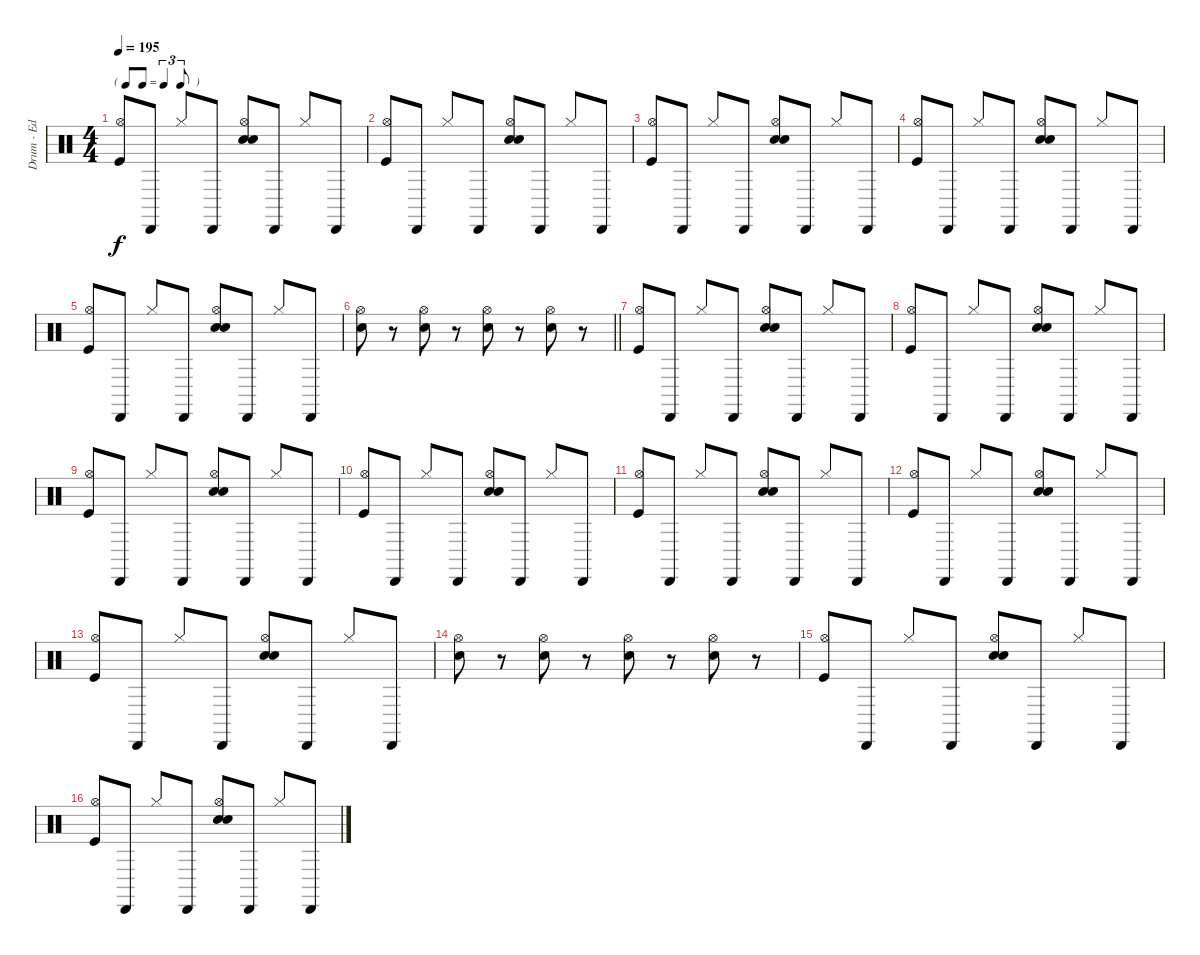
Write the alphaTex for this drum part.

\track ("Drum - Ed" "Drum - Ed") {instrument percussion}
\staff {score}
\articulation defaults
\ts (4 4)
\tf triplet8th
\tempo 195
\clef neutral
\ks c
("Hi-Hat (open)" "Kick (hit)").8{dy f} "Cabasa (hit)".8 "Hi-Hat (closed)".8 "Cabasa (hit)".8 ("Hi-Hat (open)" "Hand Clap (hit)" "Electric Snare (hit)").8 "Cabasa (hit)".8 "Hi-Hat (closed)".8 "Cabasa (hit)".8 |
("Hi-Hat (open)" "Kick (hit)").8 "Cabasa (hit)".8 "Hi-Hat (closed)".8 "Cabasa (hit)".8 ("Hi-Hat (open)" "Hand Clap (hit)" "Electric Snare (hit)").8 "Cabasa (hit)".8 "Hi-Hat (closed)".8 "Cabasa (hit)".8 |
("Hi-Hat (open)" "Kick (hit)").8 "Cabasa (hit)".8 "Hi-Hat (closed)".8 "Cabasa (hit)".8 ("Hi-Hat (open)" "Hand Clap (hit)" "Electric Snare (hit)").8 "Cabasa (hit)".8 "Hi-Hat (closed)".8 "Cabasa (hit)".8 |
("Hi-Hat (open)" "Kick (hit)").8 "Cabasa (hit)".8 "Hi-Hat (closed)".8 "Cabasa (hit)".8 ("Hi-Hat (open)" "Hand Clap (hit)" "Electric Snare (hit)").8 "Cabasa (hit)".8 "Hi-Hat (closed)".8 "Cabasa (hit)".8 |
("Hi-Hat (open)" "Kick (hit)").8 "Cabasa (hit)".8 "Hi-Hat (closed)".8 "Cabasa (hit)".8 ("Hi-Hat (open)" "Hand Clap (hit)" "Electric Snare (hit)").8 "Cabasa (hit)".8 "Hi-Hat (closed)".8 "Cabasa (hit)".8 |
\barLineRight lightlight
("Hi-Hat (open)" "Electric Snare (hit)").8 r.8 ("Hi-Hat (open)" "Electric Snare (hit)").8 r.8 ("Hi-Hat (open)" "Electric Snare (hit)").8 r.8 ("Hi-Hat (open)" "Electric Snare (hit)").8 r.8 |
("Hi-Hat (open)" "Kick (hit)").8 "Cabasa (hit)".8 "Hi-Hat (closed)".8 "Cabasa (hit)".8 ("Hi-Hat (open)" "Hand Clap (hit)" "Electric Snare (hit)").8 "Cabasa (hit)".8 "Hi-Hat (closed)".8 "Cabasa (hit)".8 |
("Hi-Hat (open)" "Kick (hit)").8 "Cabasa (hit)".8 "Hi-Hat (closed)".8 "Cabasa (hit)".8 ("Hi-Hat (open)" "Hand Clap (hit)" "Electric Snare (hit)").8 "Cabasa (hit)".8 "Hi-Hat (closed)".8 "Cabasa (hit)".8 |
("Hi-Hat (open)" "Kick (hit)").8 "Cabasa (hit)".8 "Hi-Hat (closed)".8 "Cabasa (hit)".8 ("Hi-Hat (open)" "Hand Clap (hit)" "Electric Snare (hit)").8 "Cabasa (hit)".8 "Hi-Hat (closed)".8 "Cabasa (hit)".8 |
("Hi-Hat (open)" "Kick (hit)").8 "Cabasa (hit)".8 "Hi-Hat (closed)".8 "Cabasa (hit)".8 ("Hi-Hat (open)" "Hand Clap (hit)" "Electric Snare (hit)").8 "Cabasa (hit)".8 "Hi-Hat (closed)".8 "Cabasa (hit)".8 |
("Hi-Hat (open)" "Kick (hit)").8 "Cabasa (hit)".8 "Hi-Hat (closed)".8 "Cabasa (hit)".8 ("Hi-Hat (open)" "Hand Clap (hit)" "Electric Snare (hit)").8 "Cabasa (hit)".8 "Hi-Hat (closed)".8 "Cabasa (hit)".8 |
("Hi-Hat (open)" "Kick (hit)").8 "Cabasa (hit)".8 "Hi-Hat (closed)".8 "Cabasa (hit)".8 ("Hi-Hat (open)" "Hand Clap (hit)" "Electric Snare (hit)").8 "Cabasa (hit)".8 "Hi-Hat (closed)".8 "Cabasa (hit)".8 |
("Hi-Hat (open)" "Kick (hit)").8 "Cabasa (hit)".8 "Hi-Hat (closed)".8 "Cabasa (hit)".8 ("Hi-Hat (open)" "Hand Clap (hit)" "Electric Snare (hit)").8 "Cabasa (hit)".8 "Hi-Hat (closed)".8 "Cabasa (hit)".8 |
("Hi-Hat (open)" "Electric Snare (hit)").8 r.8 ("Hi-Hat (open)" "Electric Snare (hit)").8 r.8 ("Hi-Hat (open)" "Electric Snare (hit)").8 r.8 ("Hi-Hat (open)" "Electric Snare (hit)").8 r.8 |
("Hi-Hat (open)" "Kick (hit)").8 "Cabasa (hit)".8 "Hi-Hat (closed)".8 "Cabasa (hit)".8 ("Hi-Hat (open)" "Hand Clap (hit)" "Electric Snare (hit)").8 "Cabasa (hit)".8 "Hi-Hat (closed)".8 "Cabasa (hit)".8 |
("Hi-Hat (open)" "Kick (hit)").8 "Cabasa (hit)".8 "Hi-Hat (closed)".8 "Cabasa (hit)".8 ("Hi-Hat (open)" "Hand Clap (hit)" "Electric Snare (hit)").8 "Cabasa (hit)".8 "Hi-Hat (closed)".8 "Cabasa (hit)".8
